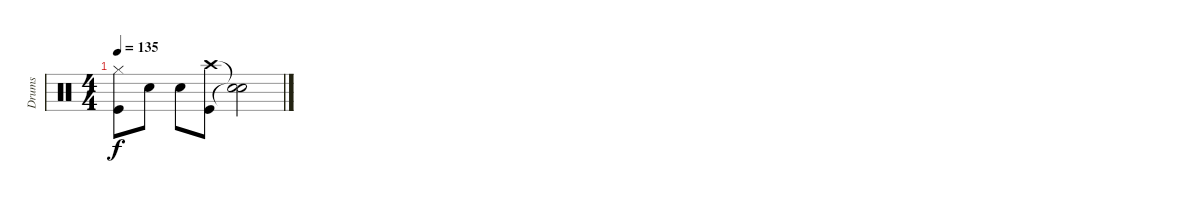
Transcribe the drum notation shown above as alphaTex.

\track ("Drums" "Drums") {instrument percussion}
\staff {score}
\articulation defaults
\ts (4 4)
\tempo 135
\clef neutral
\ks c
("Hi-Hat (closed)" "Kick (hit)").8{dy f} "Snare (hit) 2".8 "Snare (hit) 2".8 ("Crash high (hit)" "Kick (hit)").8 ("Snare (hit)"{t} "Snare (hit)"{t}).2
